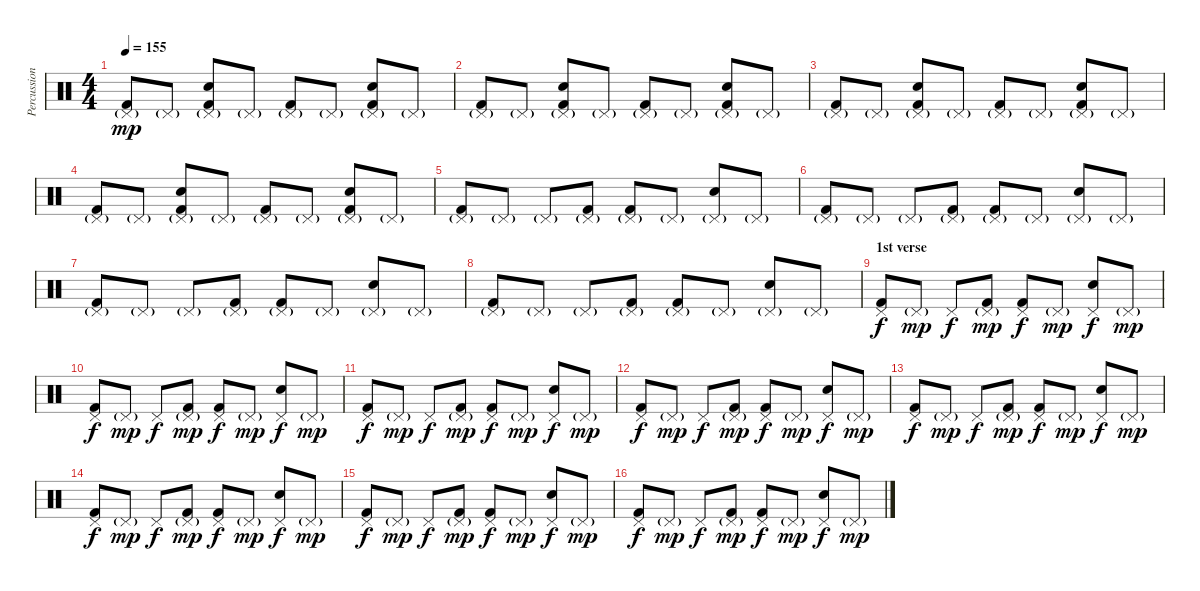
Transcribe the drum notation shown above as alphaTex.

\track ("Percussions" "Percussion") {instrument percussion}
\staff {score}
\articulation defaults
\ts (4 4)
\tempo 155
\clef neutral
\ks c
("Pedal Hi-Hat (hit)"{g} "Kick (hit) 2").8{dy mp} "Pedal Hi-Hat (hit)"{g}.8 ("Pedal Hi-Hat (hit)"{g} "Snare (hit) 2" "Kick (hit) 2").8 "Pedal Hi-Hat (hit)"{g}.8 ("Pedal Hi-Hat (hit)"{g} "Kick (hit) 2").8 "Pedal Hi-Hat (hit)"{g}.8 ("Pedal Hi-Hat (hit)"{g} "Snare (hit) 2" "Kick (hit) 2").8 "Pedal Hi-Hat (hit)"{g}.8 |
("Pedal Hi-Hat (hit)"{g} "Kick (hit) 2").8 "Pedal Hi-Hat (hit)"{g}.8 ("Pedal Hi-Hat (hit)"{g} "Snare (hit) 2" "Kick (hit) 2").8 "Pedal Hi-Hat (hit)"{g}.8 ("Pedal Hi-Hat (hit)"{g} "Kick (hit) 2").8 "Pedal Hi-Hat (hit)"{g}.8 ("Pedal Hi-Hat (hit)"{g} "Snare (hit) 2" "Kick (hit) 2").8 "Pedal Hi-Hat (hit)"{g}.8 |
("Pedal Hi-Hat (hit)"{g} "Kick (hit) 2").8 "Pedal Hi-Hat (hit)"{g}.8 ("Pedal Hi-Hat (hit)"{g} "Snare (hit) 2" "Kick (hit) 2").8 "Pedal Hi-Hat (hit)"{g}.8 ("Pedal Hi-Hat (hit)"{g} "Kick (hit) 2").8 "Pedal Hi-Hat (hit)"{g}.8 ("Pedal Hi-Hat (hit)"{g} "Snare (hit) 2" "Kick (hit) 2").8 "Pedal Hi-Hat (hit)"{g}.8 |
("Pedal Hi-Hat (hit)"{g} "Kick (hit) 2").8 "Pedal Hi-Hat (hit)"{g}.8 ("Pedal Hi-Hat (hit)"{g} "Snare (hit) 2" "Kick (hit) 2").8 "Pedal Hi-Hat (hit)"{g}.8 ("Pedal Hi-Hat (hit)"{g} "Kick (hit) 2").8 "Pedal Hi-Hat (hit)"{g}.8 ("Pedal Hi-Hat (hit)"{g} "Snare (hit) 2" "Kick (hit) 2").8 "Pedal Hi-Hat (hit)"{g}.8 |
("Pedal Hi-Hat (hit)"{g} "Kick (hit) 2").8 "Pedal Hi-Hat (hit)"{g}.8 "Pedal Hi-Hat (hit)"{g}.8 ("Pedal Hi-Hat (hit)"{g} "Kick (hit) 2").8 ("Pedal Hi-Hat (hit)"{g} "Kick (hit) 2").8 "Pedal Hi-Hat (hit)"{g}.8 ("Pedal Hi-Hat (hit)"{g} "Snare (hit) 2").8 "Pedal Hi-Hat (hit)"{g}.8 |
("Pedal Hi-Hat (hit)"{g} "Kick (hit) 2").8 "Pedal Hi-Hat (hit)"{g}.8 "Pedal Hi-Hat (hit)"{g}.8 ("Pedal Hi-Hat (hit)"{g} "Kick (hit) 2").8 ("Pedal Hi-Hat (hit)"{g} "Kick (hit) 2").8 "Pedal Hi-Hat (hit)"{g}.8 ("Pedal Hi-Hat (hit)"{g} "Snare (hit) 2").8 "Pedal Hi-Hat (hit)"{g}.8 |
("Pedal Hi-Hat (hit)"{g} "Kick (hit) 2").8 "Pedal Hi-Hat (hit)"{g}.8 "Pedal Hi-Hat (hit)"{g}.8 ("Pedal Hi-Hat (hit)"{g} "Kick (hit) 2").8 ("Pedal Hi-Hat (hit)"{g} "Kick (hit) 2").8 "Pedal Hi-Hat (hit)"{g}.8 ("Pedal Hi-Hat (hit)"{g} "Snare (hit) 2").8 "Pedal Hi-Hat (hit)"{g}.8 |
("Pedal Hi-Hat (hit)"{g} "Kick (hit) 2").8 "Pedal Hi-Hat (hit)"{g}.8 "Pedal Hi-Hat (hit)"{g}.8 ("Pedal Hi-Hat (hit)"{g} "Kick (hit) 2").8 ("Pedal Hi-Hat (hit)"{g} "Kick (hit) 2").8 "Pedal Hi-Hat (hit)"{g}.8 ("Pedal Hi-Hat (hit)"{g} "Snare (hit) 2").8 "Pedal Hi-Hat (hit)"{g}.8 |
\section ("" "1st verse ")
("Pedal Hi-Hat (hit)" "Kick (hit) 2").8{dy f} "Pedal Hi-Hat (hit)"{g}.8{dy mp} "Pedal Hi-Hat (hit)".8{dy f} ("Pedal Hi-Hat (hit)"{g} "Kick (hit) 2").8{dy mp} ("Pedal Hi-Hat (hit)" "Kick (hit) 2").8{dy f} "Pedal Hi-Hat (hit)"{g}.8{dy mp} ("Pedal Hi-Hat (hit)" "Snare (hit) 2").8{dy f} "Pedal Hi-Hat (hit)"{g}.8{dy mp} |
("Pedal Hi-Hat (hit)" "Kick (hit) 2").8{dy f} "Pedal Hi-Hat (hit)"{g}.8{dy mp} "Pedal Hi-Hat (hit)".8{dy f} ("Pedal Hi-Hat (hit)"{g} "Kick (hit) 2").8{dy mp} ("Pedal Hi-Hat (hit)" "Kick (hit) 2").8{dy f} "Pedal Hi-Hat (hit)"{g}.8{dy mp} ("Pedal Hi-Hat (hit)" "Snare (hit) 2").8{dy f} "Pedal Hi-Hat (hit)"{g}.8{dy mp} |
("Pedal Hi-Hat (hit)" "Kick (hit) 2").8{dy f} "Pedal Hi-Hat (hit)"{g}.8{dy mp} "Pedal Hi-Hat (hit)".8{dy f} ("Pedal Hi-Hat (hit)"{g} "Kick (hit) 2").8{dy mp} ("Pedal Hi-Hat (hit)" "Kick (hit) 2").8{dy f} "Pedal Hi-Hat (hit)"{g}.8{dy mp} ("Pedal Hi-Hat (hit)" "Snare (hit) 2").8{dy f} "Pedal Hi-Hat (hit)"{g}.8{dy mp} |
("Pedal Hi-Hat (hit)" "Kick (hit) 2").8{dy f} "Pedal Hi-Hat (hit)"{g}.8{dy mp} "Pedal Hi-Hat (hit)".8{dy f} ("Pedal Hi-Hat (hit)"{g} "Kick (hit) 2").8{dy mp} ("Pedal Hi-Hat (hit)" "Kick (hit) 2").8{dy f} "Pedal Hi-Hat (hit)"{g}.8{dy mp} ("Pedal Hi-Hat (hit)" "Snare (hit) 2").8{dy f} "Pedal Hi-Hat (hit)"{g}.8{dy mp} |
("Pedal Hi-Hat (hit)" "Kick (hit) 2").8{dy f} "Pedal Hi-Hat (hit)"{g}.8{dy mp} "Pedal Hi-Hat (hit)".8{dy f} ("Pedal Hi-Hat (hit)"{g} "Kick (hit) 2").8{dy mp} ("Pedal Hi-Hat (hit)" "Kick (hit) 2").8{dy f} "Pedal Hi-Hat (hit)"{g}.8{dy mp} ("Pedal Hi-Hat (hit)" "Snare (hit) 2").8{dy f} "Pedal Hi-Hat (hit)"{g}.8{dy mp} |
("Pedal Hi-Hat (hit)" "Kick (hit) 2").8{dy f} "Pedal Hi-Hat (hit)"{g}.8{dy mp} "Pedal Hi-Hat (hit)".8{dy f} ("Pedal Hi-Hat (hit)"{g} "Kick (hit) 2").8{dy mp} ("Pedal Hi-Hat (hit)" "Kick (hit) 2").8{dy f} "Pedal Hi-Hat (hit)"{g}.8{dy mp} ("Pedal Hi-Hat (hit)" "Snare (hit) 2").8{dy f} "Pedal Hi-Hat (hit)"{g}.8{dy mp} |
("Pedal Hi-Hat (hit)" "Kick (hit) 2").8{dy f} "Pedal Hi-Hat (hit)"{g}.8{dy mp} "Pedal Hi-Hat (hit)".8{dy f} ("Pedal Hi-Hat (hit)"{g} "Kick (hit) 2").8{dy mp} ("Pedal Hi-Hat (hit)" "Kick (hit) 2").8{dy f} "Pedal Hi-Hat (hit)"{g}.8{dy mp} ("Pedal Hi-Hat (hit)" "Snare (hit) 2").8{dy f} "Pedal Hi-Hat (hit)"{g}.8{dy mp} |
("Pedal Hi-Hat (hit)" "Kick (hit) 2").8{dy f} "Pedal Hi-Hat (hit)"{g}.8{dy mp} "Pedal Hi-Hat (hit)".8{dy f} ("Pedal Hi-Hat (hit)"{g} "Kick (hit) 2").8{dy mp} ("Pedal Hi-Hat (hit)" "Kick (hit) 2").8{dy f} "Pedal Hi-Hat (hit)"{g}.8{dy mp} ("Pedal Hi-Hat (hit)" "Snare (hit) 2").8{dy f} "Pedal Hi-Hat (hit)"{g}.8{dy mp}
